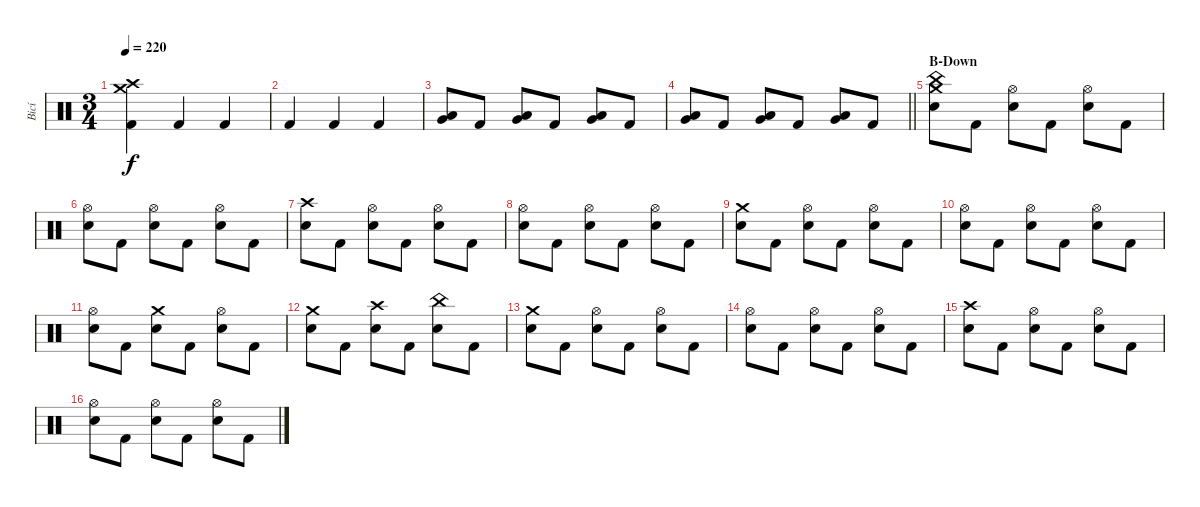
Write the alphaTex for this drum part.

\track ("Bicí" "Bicí") {instrument percussion}
\staff {score}
\articulation defaults
\ts (3 4)
\tempo 220
\clef neutral
\ks c
("Crash medium (hit)" "Crash high (hit)" "Kick (hit) 2").4{dy f} "Kick (hit) 2".4 "Kick (hit) 2".4 |
"Kick (hit) 2".4 "Kick (hit) 2".4 "Kick (hit) 2".4 |
("Low Tom (hit)" "Very Low Tom (hit)").8 "Kick (hit) 2".8 ("Low Tom (hit)" "Very Low Tom (hit)").8 "Kick (hit) 2".8 ("Low Tom (hit)" "Very Low Tom (hit)").8 "Kick (hit) 2".8 |
\barLineRight lightlight
("Low Tom (hit)" "Very Low Tom (hit)").8 "Kick (hit) 2".8 ("Low Tom (hit)" "Very Low Tom (hit)").8 "Kick (hit) 2".8 ("Low Tom (hit)" "Very Low Tom (hit)").8 "Kick (hit) 2".8 |
\section ("" "B-Down")
("Crash medium (hit)" "China (hit)" "Electric Snare (hit)").8 "Kick (hit) 2".8 ("Hi-Hat (open)" "Electric Snare (hit)").8 "Kick (hit) 2".8 ("Hi-Hat (open)" "Electric Snare (hit)").8 "Kick (hit) 2".8 |
("Hi-Hat (open)" "Electric Snare (hit)").8 "Kick (hit) 2".8 ("Hi-Hat (open)" "Electric Snare (hit)").8 "Kick (hit) 2".8 ("Hi-Hat (open)" "Electric Snare (hit)").8 "Kick (hit) 2".8 |
("Crash high (hit)" "Electric Snare (hit)").8 "Kick (hit) 2".8 ("Hi-Hat (open)" "Electric Snare (hit)").8 "Kick (hit) 2".8 ("Hi-Hat (open)" "Electric Snare (hit)").8 "Kick (hit) 2".8 |
("Hi-Hat (open)" "Electric Snare (hit)").8 "Kick (hit) 2".8 ("Hi-Hat (open)" "Electric Snare (hit)").8 "Kick (hit) 2".8 ("Hi-Hat (open)" "Electric Snare (hit)").8 "Kick (hit) 2".8 |
("Crash medium (hit)" "Electric Snare (hit)").8 "Kick (hit) 2".8 ("Hi-Hat (open)" "Electric Snare (hit)").8 "Kick (hit) 2".8 ("Hi-Hat (open)" "Electric Snare (hit)").8 "Kick (hit) 2".8 |
("Hi-Hat (open)" "Electric Snare (hit)").8 "Kick (hit) 2".8 ("Hi-Hat (open)" "Electric Snare (hit)").8 "Kick (hit) 2".8 ("Hi-Hat (open)" "Electric Snare (hit)").8 "Kick (hit) 2".8 |
("Hi-Hat (open)" "Electric Snare (hit)").8 "Kick (hit) 2".8 ("Crash medium (hit)" "Electric Snare (hit)").8 "Kick (hit) 2".8 ("Hi-Hat (open)" "Electric Snare (hit)").8 "Kick (hit) 2".8 |
("Crash medium (hit)" "Electric Snare (hit)").8 "Kick (hit) 2".8 ("Crash high (hit)" "Electric Snare (hit)").8 "Kick (hit) 2".8 ("China (hit)" "Electric Snare (hit)").8 "Kick (hit) 2".8 |
("Crash medium (hit)" "Electric Snare (hit)").8 "Kick (hit) 2".8 ("Hi-Hat (open)" "Electric Snare (hit)").8 "Kick (hit) 2".8 ("Hi-Hat (open)" "Electric Snare (hit)").8 "Kick (hit) 2".8 |
("Hi-Hat (open)" "Electric Snare (hit)").8 "Kick (hit) 2".8 ("Hi-Hat (open)" "Electric Snare (hit)").8 "Kick (hit) 2".8 ("Hi-Hat (open)" "Electric Snare (hit)").8 "Kick (hit) 2".8 |
("Crash high (hit)" "Electric Snare (hit)").8 "Kick (hit) 2".8 ("Hi-Hat (open)" "Electric Snare (hit)").8 "Kick (hit) 2".8 ("Hi-Hat (open)" "Electric Snare (hit)").8 "Kick (hit) 2".8 |
("Hi-Hat (open)" "Electric Snare (hit)").8 "Kick (hit) 2".8 ("Hi-Hat (open)" "Electric Snare (hit)").8 "Kick (hit) 2".8 ("Hi-Hat (open)" "Electric Snare (hit)").8 "Kick (hit) 2".8
